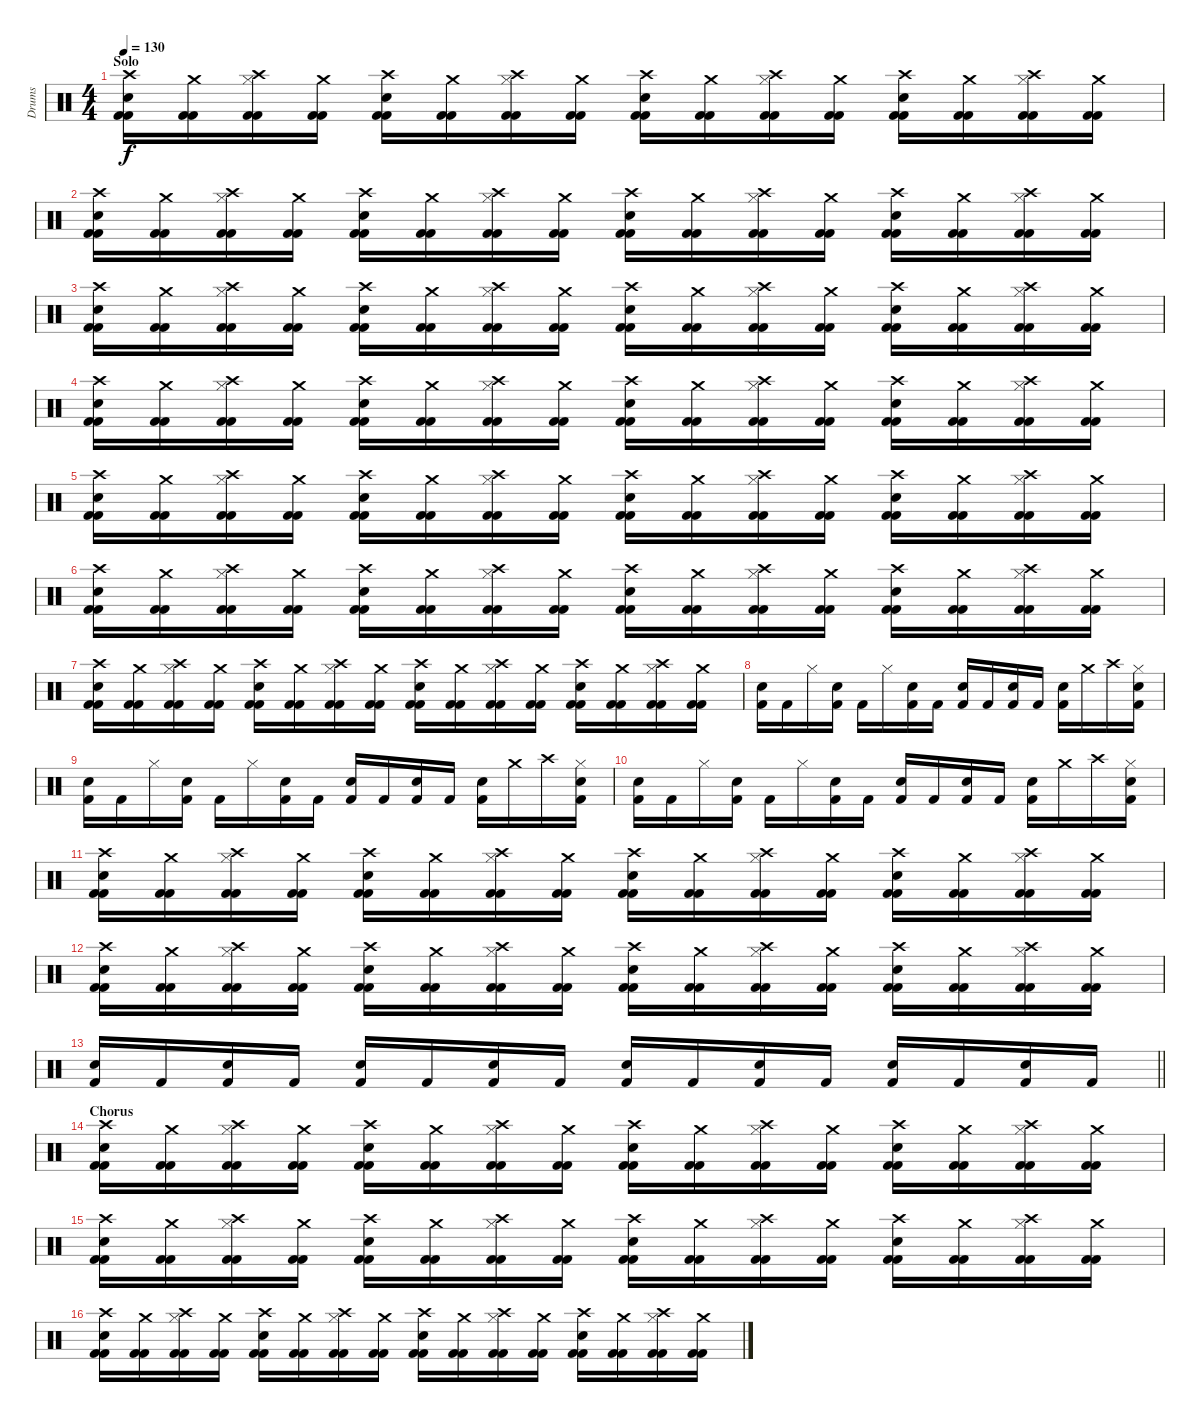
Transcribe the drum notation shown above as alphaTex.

\track ("Drums" "Drums") {instrument percussion}
\staff
\articulation defaults
\ts (4 4)
\section ("" "Solo")
\tempo 130
\clef neutral
\ks c
("Kick (hit) 2" "Crash high (hit)" "Electric Snare (hit)" "Kick (hit) 2").16{dy f} ("Kick (hit) 2" "Crash medium (hit)" "Kick (hit) 2").16 ("Kick (hit) 2" "Crash high (hit)" "Hi-Hat (closed)" "Kick (hit) 2").16 ("Kick (hit) 2" "Crash medium (hit)" "Kick (hit) 2").16 ("Kick (hit) 2" "Crash high (hit)" "Electric Snare (hit)" "Kick (hit) 2").16 ("Kick (hit) 2" "Crash medium (hit)" "Kick (hit) 2").16 ("Kick (hit) 2" "Crash high (hit)" "Hi-Hat (closed)" "Kick (hit) 2").16 ("Kick (hit) 2" "Crash medium (hit)" "Kick (hit) 2").16 ("Kick (hit) 2" "Crash high (hit)" "Electric Snare (hit)" "Kick (hit) 2").16 ("Kick (hit) 2" "Crash medium (hit)" "Kick (hit) 2").16 ("Kick (hit) 2" "Crash high (hit)" "Hi-Hat (closed)" "Kick (hit) 2").16 ("Kick (hit) 2" "Crash medium (hit)" "Kick (hit) 2").16 ("Kick (hit) 2" "Crash high (hit)" "Electric Snare (hit)" "Kick (hit) 2").16 ("Kick (hit) 2" "Crash medium (hit)" "Kick (hit) 2").16 ("Kick (hit) 2" "Crash high (hit)" "Hi-Hat (closed)" "Kick (hit) 2").16 ("Kick (hit) 2" "Crash medium (hit)" "Kick (hit) 2").16 |
("Kick (hit) 2" "Crash high (hit)" "Electric Snare (hit)" "Kick (hit) 2").16 ("Kick (hit) 2" "Crash medium (hit)" "Kick (hit) 2").16 ("Kick (hit) 2" "Crash high (hit)" "Hi-Hat (closed)" "Kick (hit) 2").16 ("Kick (hit) 2" "Crash medium (hit)" "Kick (hit) 2").16 ("Kick (hit) 2" "Crash high (hit)" "Electric Snare (hit)" "Kick (hit) 2").16 ("Kick (hit) 2" "Crash medium (hit)" "Kick (hit) 2").16 ("Kick (hit) 2" "Crash high (hit)" "Hi-Hat (closed)" "Kick (hit) 2").16 ("Kick (hit) 2" "Crash medium (hit)" "Kick (hit) 2").16 ("Kick (hit) 2" "Crash high (hit)" "Electric Snare (hit)" "Kick (hit) 2").16 ("Kick (hit) 2" "Crash medium (hit)" "Kick (hit) 2").16 ("Kick (hit) 2" "Crash high (hit)" "Hi-Hat (closed)" "Kick (hit) 2").16 ("Kick (hit) 2" "Crash medium (hit)" "Kick (hit) 2").16 ("Kick (hit) 2" "Crash high (hit)" "Electric Snare (hit)" "Kick (hit) 2").16 ("Kick (hit) 2" "Crash medium (hit)" "Kick (hit) 2").16 ("Kick (hit) 2" "Crash high (hit)" "Hi-Hat (closed)" "Kick (hit) 2").16 ("Kick (hit) 2" "Crash medium (hit)" "Kick (hit) 2").16 |
("Kick (hit) 2" "Crash high (hit)" "Electric Snare (hit)" "Kick (hit) 2").16 ("Kick (hit) 2" "Crash medium (hit)" "Kick (hit) 2").16 ("Kick (hit) 2" "Crash high (hit)" "Hi-Hat (closed)" "Kick (hit) 2").16 ("Kick (hit) 2" "Crash medium (hit)" "Kick (hit) 2").16 ("Kick (hit) 2" "Crash high (hit)" "Electric Snare (hit)" "Kick (hit) 2").16 ("Kick (hit) 2" "Crash medium (hit)" "Kick (hit) 2").16 ("Kick (hit) 2" "Crash high (hit)" "Hi-Hat (closed)" "Kick (hit) 2").16 ("Kick (hit) 2" "Crash medium (hit)" "Kick (hit) 2").16 ("Kick (hit) 2" "Crash high (hit)" "Electric Snare (hit)" "Kick (hit) 2").16 ("Kick (hit) 2" "Crash medium (hit)" "Kick (hit) 2").16 ("Kick (hit) 2" "Crash high (hit)" "Hi-Hat (closed)" "Kick (hit) 2").16 ("Kick (hit) 2" "Crash medium (hit)" "Kick (hit) 2").16 ("Kick (hit) 2" "Crash high (hit)" "Electric Snare (hit)" "Kick (hit) 2").16 ("Kick (hit) 2" "Crash medium (hit)" "Kick (hit) 2").16 ("Kick (hit) 2" "Crash high (hit)" "Hi-Hat (closed)" "Kick (hit) 2").16 ("Kick (hit) 2" "Crash medium (hit)" "Kick (hit) 2").16 |
("Kick (hit) 2" "Crash high (hit)" "Electric Snare (hit)" "Kick (hit) 2").16 ("Kick (hit) 2" "Crash medium (hit)" "Kick (hit) 2").16 ("Kick (hit) 2" "Crash high (hit)" "Hi-Hat (closed)" "Kick (hit) 2").16 ("Kick (hit) 2" "Crash medium (hit)" "Kick (hit) 2").16 ("Kick (hit) 2" "Crash high (hit)" "Electric Snare (hit)" "Kick (hit) 2").16 ("Kick (hit) 2" "Crash medium (hit)" "Kick (hit) 2").16 ("Kick (hit) 2" "Crash high (hit)" "Hi-Hat (closed)" "Kick (hit) 2").16 ("Kick (hit) 2" "Crash medium (hit)" "Kick (hit) 2").16 ("Kick (hit) 2" "Crash high (hit)" "Electric Snare (hit)" "Kick (hit) 2").16 ("Kick (hit) 2" "Crash medium (hit)" "Kick (hit) 2").16 ("Kick (hit) 2" "Crash high (hit)" "Hi-Hat (closed)" "Kick (hit) 2").16 ("Kick (hit) 2" "Crash medium (hit)" "Kick (hit) 2").16 ("Kick (hit) 2" "Crash high (hit)" "Electric Snare (hit)" "Kick (hit) 2").16 ("Kick (hit) 2" "Crash medium (hit)" "Kick (hit) 2").16 ("Kick (hit) 2" "Crash high (hit)" "Hi-Hat (closed)" "Kick (hit) 2").16 ("Kick (hit) 2" "Crash medium (hit)" "Kick (hit) 2").16 |
("Kick (hit) 2" "Crash high (hit)" "Electric Snare (hit)" "Kick (hit) 2").16 ("Kick (hit) 2" "Crash medium (hit)" "Kick (hit) 2").16 ("Kick (hit) 2" "Crash high (hit)" "Hi-Hat (closed)" "Kick (hit) 2").16 ("Kick (hit) 2" "Crash medium (hit)" "Kick (hit) 2").16 ("Kick (hit) 2" "Crash high (hit)" "Electric Snare (hit)" "Kick (hit) 2").16 ("Kick (hit) 2" "Crash medium (hit)" "Kick (hit) 2").16 ("Kick (hit) 2" "Crash high (hit)" "Hi-Hat (closed)" "Kick (hit) 2").16 ("Kick (hit) 2" "Crash medium (hit)" "Kick (hit) 2").16 ("Kick (hit) 2" "Crash high (hit)" "Electric Snare (hit)" "Kick (hit) 2").16 ("Kick (hit) 2" "Crash medium (hit)" "Kick (hit) 2").16 ("Kick (hit) 2" "Crash high (hit)" "Hi-Hat (closed)" "Kick (hit) 2").16 ("Kick (hit) 2" "Crash medium (hit)" "Kick (hit) 2").16 ("Kick (hit) 2" "Crash high (hit)" "Electric Snare (hit)" "Kick (hit) 2").16 ("Kick (hit) 2" "Crash medium (hit)" "Kick (hit) 2").16 ("Kick (hit) 2" "Crash high (hit)" "Hi-Hat (closed)" "Kick (hit) 2").16 ("Kick (hit) 2" "Crash medium (hit)" "Kick (hit) 2").16 |
("Kick (hit) 2" "Crash high (hit)" "Electric Snare (hit)" "Kick (hit) 2").16 ("Kick (hit) 2" "Crash medium (hit)" "Kick (hit) 2").16 ("Kick (hit) 2" "Crash high (hit)" "Hi-Hat (closed)" "Kick (hit) 2").16 ("Kick (hit) 2" "Crash medium (hit)" "Kick (hit) 2").16 ("Kick (hit) 2" "Crash high (hit)" "Electric Snare (hit)" "Kick (hit) 2").16 ("Kick (hit) 2" "Crash medium (hit)" "Kick (hit) 2").16 ("Kick (hit) 2" "Crash high (hit)" "Hi-Hat (closed)" "Kick (hit) 2").16 ("Kick (hit) 2" "Crash medium (hit)" "Kick (hit) 2").16 ("Kick (hit) 2" "Crash high (hit)" "Electric Snare (hit)" "Kick (hit) 2").16 ("Kick (hit) 2" "Crash medium (hit)" "Kick (hit) 2").16 ("Kick (hit) 2" "Crash high (hit)" "Hi-Hat (closed)" "Kick (hit) 2").16 ("Kick (hit) 2" "Crash medium (hit)" "Kick (hit) 2").16 ("Kick (hit) 2" "Crash high (hit)" "Electric Snare (hit)" "Kick (hit) 2").16 ("Kick (hit) 2" "Crash medium (hit)" "Kick (hit) 2").16 ("Kick (hit) 2" "Crash high (hit)" "Hi-Hat (closed)" "Kick (hit) 2").16 ("Kick (hit) 2" "Crash medium (hit)" "Kick (hit) 2").16 |
("Kick (hit) 2" "Crash high (hit)" "Electric Snare (hit)" "Kick (hit) 2").16 ("Kick (hit) 2" "Crash medium (hit)" "Kick (hit) 2").16 ("Kick (hit) 2" "Crash high (hit)" "Hi-Hat (closed)" "Kick (hit) 2").16 ("Kick (hit) 2" "Crash medium (hit)" "Kick (hit) 2").16 ("Kick (hit) 2" "Crash high (hit)" "Electric Snare (hit)" "Kick (hit) 2").16 ("Kick (hit) 2" "Crash medium (hit)" "Kick (hit) 2").16 ("Kick (hit) 2" "Crash high (hit)" "Hi-Hat (closed)" "Kick (hit) 2").16 ("Kick (hit) 2" "Crash medium (hit)" "Kick (hit) 2").16 ("Kick (hit) 2" "Crash high (hit)" "Electric Snare (hit)" "Kick (hit) 2").16 ("Kick (hit) 2" "Crash medium (hit)" "Kick (hit) 2").16 ("Kick (hit) 2" "Crash high (hit)" "Hi-Hat (closed)" "Kick (hit) 2").16 ("Kick (hit) 2" "Crash medium (hit)" "Kick (hit) 2").16 ("Kick (hit) 2" "Crash high (hit)" "Electric Snare (hit)" "Kick (hit) 2").16 ("Kick (hit) 2" "Crash medium (hit)" "Kick (hit) 2").16 ("Kick (hit) 2" "Crash high (hit)" "Hi-Hat (closed)" "Kick (hit) 2").16 ("Kick (hit) 2" "Crash medium (hit)" "Kick (hit) 2").16 |
("Snare (hit) 2" "Kick (hit) 2").16 "Kick (hit) 2".16 "Hi-Hat (closed)".16 ("Snare (hit) 2" "Kick (hit) 2").16 "Kick (hit) 2".16 "Hi-Hat (closed)".16 ("Snare (hit) 2" "Kick (hit) 2").16 "Kick (hit) 2".16 ("Snare (hit) 2" "Kick (hit) 2").16 "Kick (hit) 2".16 ("Snare (hit) 2" "Kick (hit) 2").16 "Kick (hit) 2".16 ("Snare (hit) 2" "Kick (hit) 2").16 "Crash medium (hit)".16 "Crash high (hit)".16 ("Hi-Hat (closed)" "Snare (hit) 2" "Kick (hit) 2").16 |
("Snare (hit) 2" "Kick (hit) 2").16 "Kick (hit) 2".16 "Hi-Hat (closed)".16 ("Snare (hit) 2" "Kick (hit) 2").16 "Kick (hit) 2".16 "Hi-Hat (closed)".16 ("Snare (hit) 2" "Kick (hit) 2").16 "Kick (hit) 2".16 ("Snare (hit) 2" "Kick (hit) 2").16 "Kick (hit) 2".16 ("Snare (hit) 2" "Kick (hit) 2").16 "Kick (hit) 2".16 ("Snare (hit) 2" "Kick (hit) 2").16 "Crash medium (hit)".16 "Crash high (hit)".16 ("Hi-Hat (closed)" "Snare (hit) 2" "Kick (hit) 2").16 |
("Snare (hit) 2" "Kick (hit) 2").16 "Kick (hit) 2".16 "Hi-Hat (closed)".16 ("Snare (hit) 2" "Kick (hit) 2").16 "Kick (hit) 2".16 "Hi-Hat (closed)".16 ("Snare (hit) 2" "Kick (hit) 2").16 "Kick (hit) 2".16 ("Snare (hit) 2" "Kick (hit) 2").16 "Kick (hit) 2".16 ("Snare (hit) 2" "Kick (hit) 2").16 "Kick (hit) 2".16 ("Snare (hit) 2" "Kick (hit) 2").16 "Crash medium (hit)".16 "Crash high (hit)".16 ("Hi-Hat (closed)" "Snare (hit) 2" "Kick (hit) 2").16 |
("Kick (hit) 2" "Crash high (hit)" "Electric Snare (hit)" "Kick (hit) 2").16 ("Kick (hit) 2" "Crash medium (hit)" "Kick (hit) 2").16 ("Kick (hit) 2" "Crash high (hit)" "Hi-Hat (closed)" "Kick (hit) 2").16 ("Kick (hit) 2" "Crash medium (hit)" "Kick (hit) 2").16 ("Kick (hit) 2" "Crash high (hit)" "Electric Snare (hit)" "Kick (hit) 2").16 ("Kick (hit) 2" "Crash medium (hit)" "Kick (hit) 2").16 ("Kick (hit) 2" "Crash high (hit)" "Hi-Hat (closed)" "Kick (hit) 2").16 ("Kick (hit) 2" "Crash medium (hit)" "Kick (hit) 2").16 ("Kick (hit) 2" "Crash high (hit)" "Electric Snare (hit)" "Kick (hit) 2").16 ("Kick (hit) 2" "Crash medium (hit)" "Kick (hit) 2").16 ("Kick (hit) 2" "Crash high (hit)" "Hi-Hat (closed)" "Kick (hit) 2").16 ("Kick (hit) 2" "Crash medium (hit)" "Kick (hit) 2").16 ("Kick (hit) 2" "Crash high (hit)" "Electric Snare (hit)" "Kick (hit) 2").16 ("Kick (hit) 2" "Crash medium (hit)" "Kick (hit) 2").16 ("Kick (hit) 2" "Crash high (hit)" "Hi-Hat (closed)" "Kick (hit) 2").16 ("Kick (hit) 2" "Crash medium (hit)" "Kick (hit) 2").16 |
("Kick (hit) 2" "Crash high (hit)" "Electric Snare (hit)" "Kick (hit) 2").16 ("Kick (hit) 2" "Crash medium (hit)" "Kick (hit) 2").16 ("Kick (hit) 2" "Crash high (hit)" "Hi-Hat (closed)" "Kick (hit) 2").16 ("Kick (hit) 2" "Crash medium (hit)" "Kick (hit) 2").16 ("Kick (hit) 2" "Crash high (hit)" "Electric Snare (hit)" "Kick (hit) 2").16 ("Kick (hit) 2" "Crash medium (hit)" "Kick (hit) 2").16 ("Kick (hit) 2" "Crash high (hit)" "Hi-Hat (closed)" "Kick (hit) 2").16 ("Kick (hit) 2" "Crash medium (hit)" "Kick (hit) 2").16 ("Kick (hit) 2" "Crash high (hit)" "Electric Snare (hit)" "Kick (hit) 2").16 ("Kick (hit) 2" "Crash medium (hit)" "Kick (hit) 2").16 ("Kick (hit) 2" "Crash high (hit)" "Hi-Hat (closed)" "Kick (hit) 2").16 ("Kick (hit) 2" "Crash medium (hit)" "Kick (hit) 2").16 ("Kick (hit) 2" "Crash high (hit)" "Electric Snare (hit)" "Kick (hit) 2").16 ("Kick (hit) 2" "Crash medium (hit)" "Kick (hit) 2").16 ("Kick (hit) 2" "Crash high (hit)" "Hi-Hat (closed)" "Kick (hit) 2").16 ("Kick (hit) 2" "Crash medium (hit)" "Kick (hit) 2").16 |
\barLineRight lightlight
("Snare (hit) 2" "Kick (hit) 2").16 "Kick (hit) 2".16 ("Snare (hit) 2" "Kick (hit) 2").16 "Kick (hit) 2".16 ("Snare (hit) 2" "Kick (hit) 2").16 "Kick (hit) 2".16 ("Snare (hit) 2" "Kick (hit) 2").16 "Kick (hit) 2".16 ("Snare (hit) 2" "Kick (hit) 2").16 "Kick (hit) 2".16 ("Snare (hit) 2" "Kick (hit) 2").16 "Kick (hit) 2".16 ("Snare (hit) 2" "Kick (hit) 2").16 "Kick (hit) 2".16 ("Snare (hit) 2" "Kick (hit) 2").16 "Kick (hit) 2".16 |
\section ("" "Chorus")
("Kick (hit) 2" "Crash high (hit)" "Electric Snare (hit)" "Kick (hit) 2").16 ("Kick (hit) 2" "Crash medium (hit)" "Kick (hit) 2").16 ("Kick (hit) 2" "Crash high (hit)" "Hi-Hat (closed)" "Kick (hit) 2").16 ("Kick (hit) 2" "Crash medium (hit)" "Kick (hit) 2").16 ("Kick (hit) 2" "Crash high (hit)" "Electric Snare (hit)" "Kick (hit) 2").16 ("Kick (hit) 2" "Crash medium (hit)" "Kick (hit) 2").16 ("Kick (hit) 2" "Crash high (hit)" "Hi-Hat (closed)" "Kick (hit) 2").16 ("Kick (hit) 2" "Crash medium (hit)" "Kick (hit) 2").16 ("Kick (hit) 2" "Crash high (hit)" "Electric Snare (hit)" "Kick (hit) 2").16 ("Kick (hit) 2" "Crash medium (hit)" "Kick (hit) 2").16 ("Kick (hit) 2" "Crash high (hit)" "Hi-Hat (closed)" "Kick (hit) 2").16 ("Kick (hit) 2" "Crash medium (hit)" "Kick (hit) 2").16 ("Kick (hit) 2" "Crash high (hit)" "Electric Snare (hit)" "Kick (hit) 2").16 ("Kick (hit) 2" "Crash medium (hit)" "Kick (hit) 2").16 ("Kick (hit) 2" "Crash high (hit)" "Hi-Hat (closed)" "Kick (hit) 2").16 ("Kick (hit) 2" "Crash medium (hit)" "Kick (hit) 2").16 |
("Kick (hit) 2" "Crash high (hit)" "Electric Snare (hit)" "Kick (hit) 2").16 ("Kick (hit) 2" "Crash medium (hit)" "Kick (hit) 2").16 ("Kick (hit) 2" "Crash high (hit)" "Hi-Hat (closed)" "Kick (hit) 2").16 ("Kick (hit) 2" "Crash medium (hit)" "Kick (hit) 2").16 ("Kick (hit) 2" "Crash high (hit)" "Electric Snare (hit)" "Kick (hit) 2").16 ("Kick (hit) 2" "Crash medium (hit)" "Kick (hit) 2").16 ("Kick (hit) 2" "Crash high (hit)" "Hi-Hat (closed)" "Kick (hit) 2").16 ("Kick (hit) 2" "Crash medium (hit)" "Kick (hit) 2").16 ("Kick (hit) 2" "Crash high (hit)" "Electric Snare (hit)" "Kick (hit) 2").16 ("Kick (hit) 2" "Crash medium (hit)" "Kick (hit) 2").16 ("Kick (hit) 2" "Crash high (hit)" "Hi-Hat (closed)" "Kick (hit) 2").16 ("Kick (hit) 2" "Crash medium (hit)" "Kick (hit) 2").16 ("Kick (hit) 2" "Crash high (hit)" "Electric Snare (hit)" "Kick (hit) 2").16 ("Kick (hit) 2" "Crash medium (hit)" "Kick (hit) 2").16 ("Kick (hit) 2" "Crash high (hit)" "Hi-Hat (closed)" "Kick (hit) 2").16 ("Kick (hit) 2" "Crash medium (hit)" "Kick (hit) 2").16 |
("Kick (hit) 2" "Crash high (hit)" "Electric Snare (hit)" "Kick (hit) 2").16 ("Kick (hit) 2" "Crash medium (hit)" "Kick (hit) 2").16 ("Kick (hit) 2" "Crash high (hit)" "Hi-Hat (closed)" "Kick (hit) 2").16 ("Kick (hit) 2" "Crash medium (hit)" "Kick (hit) 2").16 ("Kick (hit) 2" "Crash high (hit)" "Electric Snare (hit)" "Kick (hit) 2").16 ("Kick (hit) 2" "Crash medium (hit)" "Kick (hit) 2").16 ("Kick (hit) 2" "Crash high (hit)" "Hi-Hat (closed)" "Kick (hit) 2").16 ("Kick (hit) 2" "Crash medium (hit)" "Kick (hit) 2").16 ("Kick (hit) 2" "Crash high (hit)" "Electric Snare (hit)" "Kick (hit) 2").16 ("Kick (hit) 2" "Crash medium (hit)" "Kick (hit) 2").16 ("Kick (hit) 2" "Crash high (hit)" "Hi-Hat (closed)" "Kick (hit) 2").16 ("Kick (hit) 2" "Crash medium (hit)" "Kick (hit) 2").16 ("Kick (hit) 2" "Crash high (hit)" "Electric Snare (hit)" "Kick (hit) 2").16 ("Kick (hit) 2" "Crash medium (hit)" "Kick (hit) 2").16 ("Kick (hit) 2" "Crash high (hit)" "Hi-Hat (closed)" "Kick (hit) 2").16 ("Kick (hit) 2" "Crash medium (hit)" "Kick (hit) 2").16
